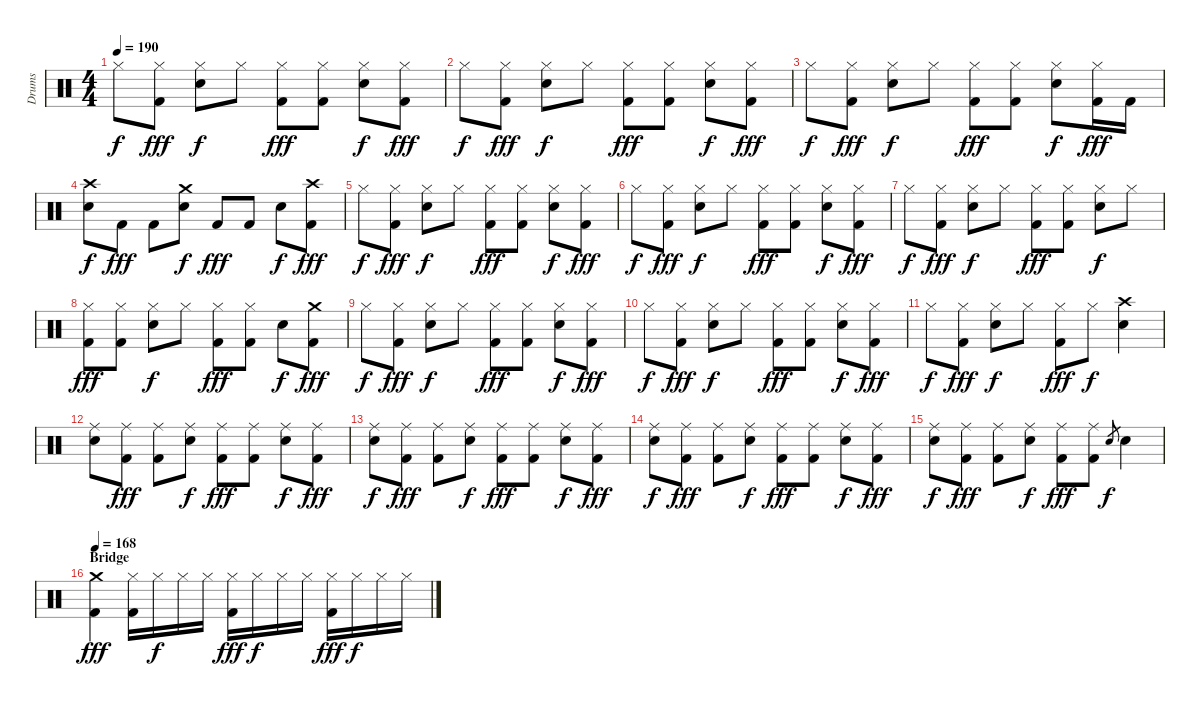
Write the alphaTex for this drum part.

\track ("Drums" "Drums") {instrument percussion}
\staff {score}
\articulation defaults
\ts (4 4)
\tempo 190
\clef neutral
\ks c "Hi-Hat (closed)".8{dy f}
("Hi-Hat (closed)" "Kick (hit) 2").8{dy fff} ("Hi-Hat (closed)" "Electric Snare (hit)").8{dy f} "Hi-Hat (closed)".8 ("Hi-Hat (closed)" "Kick (hit) 2").8{dy fff} ("Hi-Hat (closed)" "Kick (hit) 2").8 ("Hi-Hat (closed)" "Electric Snare (hit)").8{dy f} ("Hi-Hat (closed)" "Kick (hit) 2").8{dy fff} |
"Hi-Hat (closed)".8{dy f} ("Hi-Hat (closed)" "Kick (hit) 2").8{dy fff} ("Hi-Hat (closed)" "Electric Snare (hit)").8{dy f} "Hi-Hat (closed)".8 ("Hi-Hat (closed)" "Kick (hit) 2").8{dy fff} ("Hi-Hat (closed)" "Kick (hit) 2").8 ("Hi-Hat (closed)" "Electric Snare (hit)").8{dy f} ("Hi-Hat (closed)" "Kick (hit) 2").8{dy fff} |
"Hi-Hat (closed)".8{dy f} ("Hi-Hat (closed)" "Kick (hit) 2").8{dy fff} ("Hi-Hat (closed)" "Electric Snare (hit)").8{dy f} "Hi-Hat (closed)".8 ("Hi-Hat (closed)" "Kick (hit) 2").8{dy fff} ("Hi-Hat (closed)" "Kick (hit) 2").8 ("Hi-Hat (closed)" "Electric Snare (hit)").8{dy f} ("Hi-Hat (closed)" "Kick (hit) 2").16{dy fff} "Kick (hit) 2".16 |
("Crash high (hit)" "Electric Snare (hit)").8{dy f} "Kick (hit) 2".8{dy fff} "Kick (hit) 2".8 ("Crash medium (hit)" "Electric Snare (hit)").8{dy f} "Kick (hit) 2".8{dy fff} "Kick (hit) 2".8 "Electric Snare (hit)".8{dy f} ("Crash high (hit)" "Kick (hit) 2").8{dy fff} |
"Hi-Hat (closed)".8{dy f} ("Hi-Hat (closed)" "Kick (hit) 2").8{dy fff} ("Hi-Hat (closed)" "Electric Snare (hit)").8{dy f} "Hi-Hat (closed)".8 ("Hi-Hat (closed)" "Kick (hit) 2").8{dy fff} ("Hi-Hat (closed)" "Kick (hit) 2").8 ("Hi-Hat (closed)" "Electric Snare (hit)").8{dy f} ("Hi-Hat (closed)" "Kick (hit) 2").8{dy fff} |
"Hi-Hat (closed)".8{dy f} ("Hi-Hat (closed)" "Kick (hit) 2").8{dy fff} ("Hi-Hat (closed)" "Electric Snare (hit)").8{dy f} "Hi-Hat (closed)".8 ("Hi-Hat (closed)" "Kick (hit) 2").8{dy fff} ("Hi-Hat (closed)" "Kick (hit) 2").8 ("Hi-Hat (closed)" "Electric Snare (hit)").8{dy f} ("Hi-Hat (closed)" "Kick (hit) 2").8{dy fff} |
"Hi-Hat (closed)".8{dy f} ("Hi-Hat (closed)" "Kick (hit) 2").8{dy fff} ("Hi-Hat (closed)" "Electric Snare (hit)").8{dy f} "Hi-Hat (closed)".8 ("Hi-Hat (closed)" "Kick (hit) 2").8{dy fff} ("Hi-Hat (closed)" "Kick (hit) 2").8 ("Hi-Hat (closed)" "Electric Snare (hit)").8{dy f} "Hi-Hat (closed)".8 |
("Hi-Hat (closed)" "Kick (hit) 2").8{dy fff} ("Hi-Hat (closed)" "Kick (hit) 2").8 ("Hi-Hat (closed)" "Electric Snare (hit)").8{dy f} "Hi-Hat (closed)".8 ("Hi-Hat (closed)" "Kick (hit) 2").8{dy fff} ("Hi-Hat (closed)" "Kick (hit) 2").8 "Electric Snare (hit)".8{dy f} ("Crash medium (hit)" "Kick (hit) 2").8{dy fff} |
"Hi-Hat (closed)".8{dy f} ("Hi-Hat (closed)" "Kick (hit) 2").8{dy fff} ("Hi-Hat (closed)" "Electric Snare (hit)").8{dy f} "Hi-Hat (closed)".8 ("Hi-Hat (closed)" "Kick (hit) 2").8{dy fff} ("Hi-Hat (closed)" "Kick (hit) 2").8 ("Hi-Hat (closed)" "Electric Snare (hit)").8{dy f} ("Hi-Hat (closed)" "Kick (hit) 2").8{dy fff} |
"Hi-Hat (closed)".8{dy f} ("Hi-Hat (closed)" "Kick (hit) 2").8{dy fff} ("Hi-Hat (closed)" "Electric Snare (hit)").8{dy f} "Hi-Hat (closed)".8 ("Hi-Hat (closed)" "Kick (hit) 2").8{dy fff} ("Hi-Hat (closed)" "Kick (hit) 2").8 ("Hi-Hat (closed)" "Electric Snare (hit)").8{dy f} ("Hi-Hat (closed)" "Kick (hit) 2").8{dy fff} |
"Hi-Hat (closed)".8{dy f} ("Hi-Hat (closed)" "Kick (hit) 2").8{dy fff} ("Hi-Hat (closed)" "Electric Snare (hit)").8{dy f} "Hi-Hat (closed)".8 ("Hi-Hat (closed)" "Kick (hit) 2").8{dy fff} "Hi-Hat (closed)".8{dy f} ("Crash high (hit)" "Electric Snare (hit)").4 |
("Ride (middle)" "Electric Snare (hit)").8 ("Ride (middle)" "Kick (hit) 2").8{dy fff} ("Ride (middle)" "Kick (hit) 2").8 ("Ride (middle)" "Electric Snare (hit)").8{dy f} ("Ride (middle)" "Kick (hit) 2").8{dy fff} ("Ride (middle)" "Kick (hit) 2").8 ("Ride (middle)" "Electric Snare (hit)").8{dy f} ("Ride (middle)" "Kick (hit) 2").8{dy fff} |
("Ride (middle)" "Electric Snare (hit)").8{dy f} ("Ride (middle)" "Kick (hit) 2").8{dy fff} ("Ride (middle)" "Kick (hit) 2").8 ("Ride (middle)" "Electric Snare (hit)").8{dy f} ("Ride (middle)" "Kick (hit) 2").8{dy fff} ("Ride (middle)" "Kick (hit) 2").8 ("Ride (middle)" "Electric Snare (hit)").8{dy f} ("Ride (middle)" "Kick (hit) 2").8{dy fff} |
("Ride (middle)" "Electric Snare (hit)").8{dy f} ("Ride (middle)" "Kick (hit) 2").8{dy fff} ("Ride (middle)" "Kick (hit) 2").8 ("Ride (middle)" "Electric Snare (hit)").8{dy f} ("Ride (middle)" "Kick (hit) 2").8{dy fff} ("Ride (middle)" "Kick (hit) 2").8 ("Ride (middle)" "Electric Snare (hit)").8{dy f} ("Ride (middle)" "Kick (hit) 2").8{dy fff} |
("Ride (middle)" "Electric Snare (hit)").8{dy f} ("Ride (middle)" "Kick (hit) 2").8{dy fff} ("Ride (middle)" "Kick (hit) 2").8 ("Ride (middle)" "Electric Snare (hit)").8{dy f} ("Ride (middle)" "Kick (hit) 2").8{dy fff} ("Ride (middle)" "Kick (hit) 2").8 "Electric Snare (hit)".8{gr dy f} "Electric Snare (hit)".4 |
\section ("" "Bridge")
\tempo 168
("Crash medium (hit)" "Kick (hit) 2").4{dy fff} ("Hi-Hat (closed)" "Kick (hit) 2").16 "Hi-Hat (closed)".16{dy f} "Hi-Hat (closed)".16 "Hi-Hat (closed)".16 ("Hi-Hat (closed)" "Kick (hit) 2").16{dy fff} "Hi-Hat (closed)".16{dy f} "Hi-Hat (closed)".16 "Hi-Hat (closed)".16 ("Hi-Hat (closed)" "Kick (hit) 2").16{dy fff} "Hi-Hat (closed)".16{dy f} "Hi-Hat (closed)".16 "Hi-Hat (closed)".16
